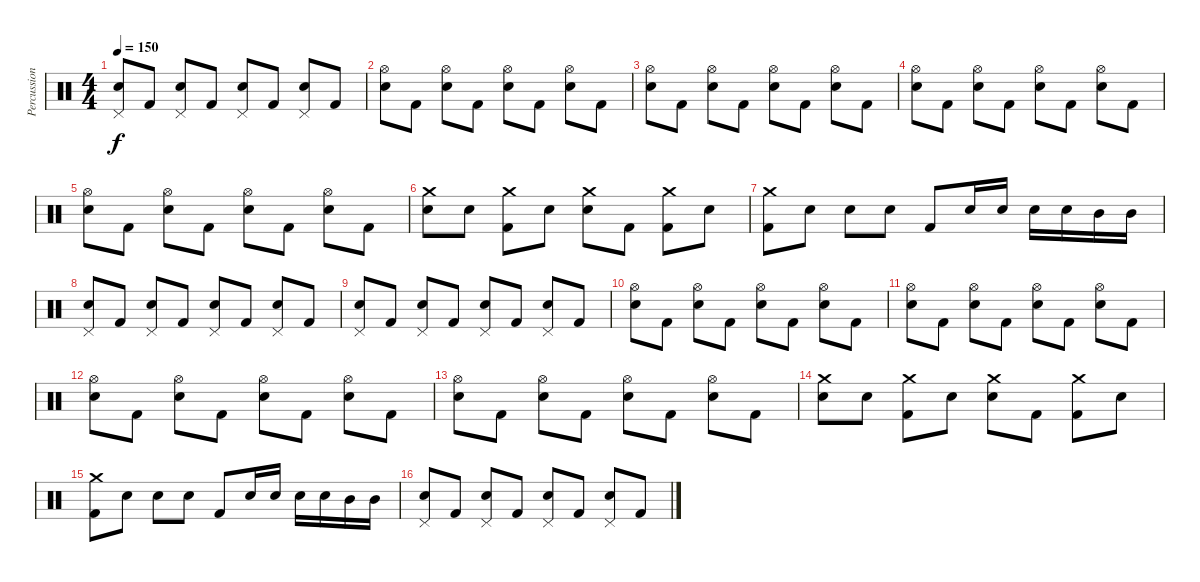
\track ("Percussion" "Percussion") {instrument percussion}
\staff {score}
\articulation defaults
\ts (4 4)
\tempo 150
\clef neutral
\ks c
("Pedal Hi-Hat (hit)" "Electric Snare (hit)").8{dy f} "Kick (hit) 2".8 ("Pedal Hi-Hat (hit)" "Electric Snare (hit)").8 "Kick (hit) 2".8 ("Pedal Hi-Hat (hit)" "Electric Snare (hit)").8 "Kick (hit) 2".8 ("Pedal Hi-Hat (hit)" "Electric Snare (hit)").8 "Kick (hit) 2".8 |
("Hi-Hat (open)" "Electric Snare (hit)").8 "Kick (hit) 2".8 ("Hi-Hat (open)" "Electric Snare (hit)").8 "Kick (hit) 2".8 ("Hi-Hat (open)" "Electric Snare (hit)").8 "Kick (hit) 2".8 ("Hi-Hat (open)" "Electric Snare (hit)").8 "Kick (hit) 2".8 |
("Hi-Hat (open)" "Electric Snare (hit)").8 "Kick (hit) 2".8 ("Hi-Hat (open)" "Electric Snare (hit)").8 "Kick (hit) 2".8 ("Hi-Hat (open)" "Electric Snare (hit)").8 "Kick (hit) 2".8 ("Hi-Hat (open)" "Electric Snare (hit)").8 "Kick (hit) 2".8 |
("Hi-Hat (open)" "Electric Snare (hit)").8 "Kick (hit) 2".8 ("Hi-Hat (open)" "Electric Snare (hit)").8 "Kick (hit) 2".8 ("Hi-Hat (open)" "Electric Snare (hit)").8 "Kick (hit) 2".8 ("Hi-Hat (open)" "Electric Snare (hit)").8 "Kick (hit) 2".8 |
("Hi-Hat (open)" "Electric Snare (hit)").8 "Kick (hit) 2".8 ("Hi-Hat (open)" "Electric Snare (hit)").8 "Kick (hit) 2".8 ("Hi-Hat (open)" "Electric Snare (hit)").8 "Kick (hit) 2".8 ("Hi-Hat (open)" "Electric Snare (hit)").8 "Kick (hit) 2".8 |
("Crash medium (hit)" "Electric Snare (hit)").8 "Electric Snare (hit)".8 ("Crash medium (hit)" "Kick (hit) 2").8 "Electric Snare (hit)".8 ("Crash medium (hit)" "Electric Snare (hit)").8 "Kick (hit) 2".8 ("Crash medium (hit)" "Kick (hit) 2").8 "Electric Snare (hit)".8 |
("Crash medium (hit)" "Kick (hit) 2").8 "Electric Snare (hit)".8 "Electric Snare (hit)".8 "Electric Snare (hit)".8 "Kick (hit) 2".8 "Electric Snare (hit)".16 "Electric Snare (hit)".16 "Electric Snare (hit)".16 "Electric Snare (hit)".16 "Mid Tom (hit)".16 "Mid Tom (hit)".16 |
("Pedal Hi-Hat (hit)" "Electric Snare (hit)").8 "Kick (hit) 2".8 ("Pedal Hi-Hat (hit)" "Electric Snare (hit)").8 "Kick (hit) 2".8 ("Pedal Hi-Hat (hit)" "Electric Snare (hit)").8 "Kick (hit) 2".8 ("Pedal Hi-Hat (hit)" "Electric Snare (hit)").8 "Kick (hit) 2".8 |
("Pedal Hi-Hat (hit)" "Electric Snare (hit)").8 "Kick (hit) 2".8 ("Pedal Hi-Hat (hit)" "Electric Snare (hit)").8 "Kick (hit) 2".8 ("Pedal Hi-Hat (hit)" "Electric Snare (hit)").8 "Kick (hit) 2".8 ("Pedal Hi-Hat (hit)" "Electric Snare (hit)").8 "Kick (hit) 2".8 |
("Hi-Hat (open)" "Electric Snare (hit)").8 "Kick (hit) 2".8 ("Hi-Hat (open)" "Electric Snare (hit)").8 "Kick (hit) 2".8 ("Hi-Hat (open)" "Electric Snare (hit)").8 "Kick (hit) 2".8 ("Hi-Hat (open)" "Electric Snare (hit)").8 "Kick (hit) 2".8 |
("Hi-Hat (open)" "Electric Snare (hit)").8 "Kick (hit) 2".8 ("Hi-Hat (open)" "Electric Snare (hit)").8 "Kick (hit) 2".8 ("Hi-Hat (open)" "Electric Snare (hit)").8 "Kick (hit) 2".8 ("Hi-Hat (open)" "Electric Snare (hit)").8 "Kick (hit) 2".8 |
("Hi-Hat (open)" "Electric Snare (hit)").8 "Kick (hit) 2".8 ("Hi-Hat (open)" "Electric Snare (hit)").8 "Kick (hit) 2".8 ("Hi-Hat (open)" "Electric Snare (hit)").8 "Kick (hit) 2".8 ("Hi-Hat (open)" "Electric Snare (hit)").8 "Kick (hit) 2".8 |
("Hi-Hat (open)" "Electric Snare (hit)").8 "Kick (hit) 2".8 ("Hi-Hat (open)" "Electric Snare (hit)").8 "Kick (hit) 2".8 ("Hi-Hat (open)" "Electric Snare (hit)").8 "Kick (hit) 2".8 ("Hi-Hat (open)" "Electric Snare (hit)").8 "Kick (hit) 2".8 |
("Crash medium (hit)" "Electric Snare (hit)").8 "Electric Snare (hit)".8 ("Crash medium (hit)" "Kick (hit) 2").8 "Electric Snare (hit)".8 ("Crash medium (hit)" "Electric Snare (hit)").8 "Kick (hit) 2".8 ("Crash medium (hit)" "Kick (hit) 2").8 "Electric Snare (hit)".8 |
("Crash medium (hit)" "Kick (hit) 2").8 "Electric Snare (hit)".8 "Electric Snare (hit)".8 "Electric Snare (hit)".8 "Kick (hit) 2".8 "Electric Snare (hit)".16 "Electric Snare (hit)".16 "Electric Snare (hit)".16 "Electric Snare (hit)".16 "Mid Tom (hit)".16 "Mid Tom (hit)".16 |
("Pedal Hi-Hat (hit)" "Electric Snare (hit)").8 "Kick (hit) 2".8 ("Pedal Hi-Hat (hit)" "Electric Snare (hit)").8 "Kick (hit) 2".8 ("Pedal Hi-Hat (hit)" "Electric Snare (hit)").8 "Kick (hit) 2".8 ("Pedal Hi-Hat (hit)" "Electric Snare (hit)").8 "Kick (hit) 2".8
